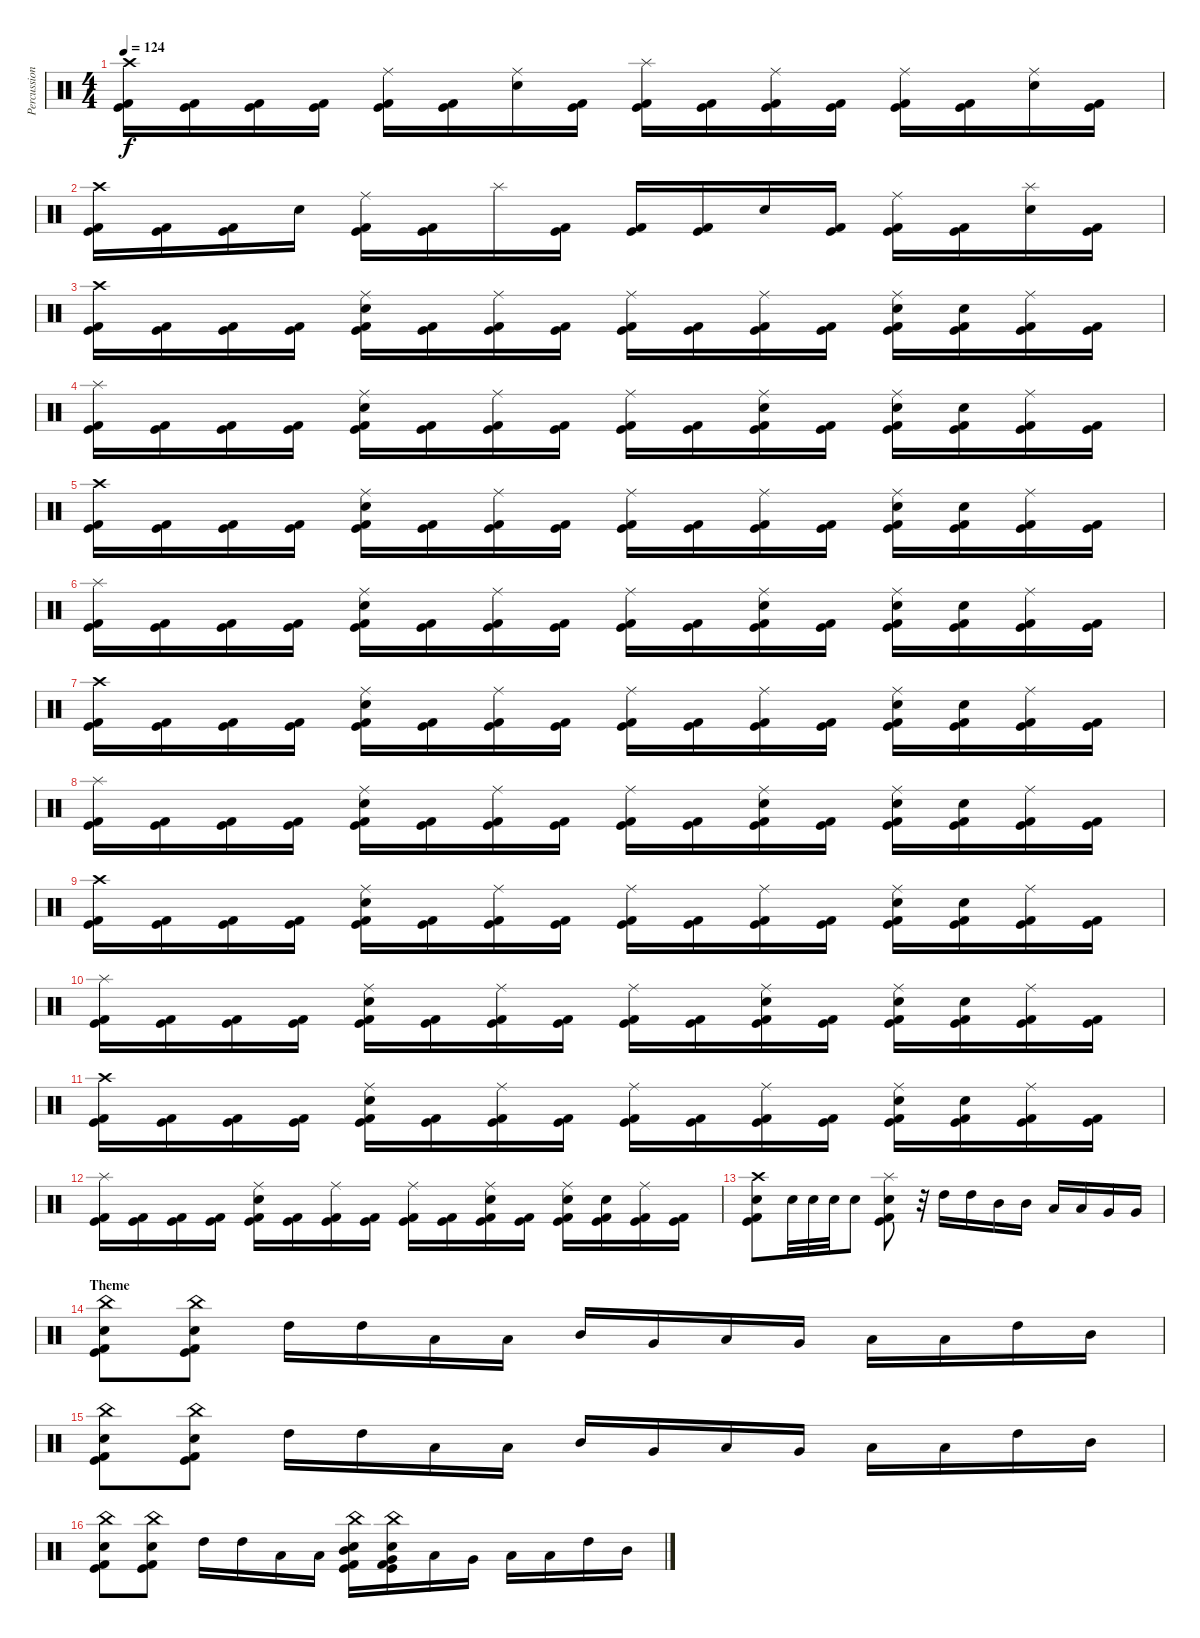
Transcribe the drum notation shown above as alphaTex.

\track ("Percussion" "Percussion") {instrument percussion}
\staff {score}
\articulation defaults
\ts (4 4)
\tempo 124
\clef neutral
\ks c
("Crash high (hit)" "Kick (hit) 2" "Kick (hit)").16{dy f} ("Kick (hit) 2" "Kick (hit)").16 ("Kick (hit) 2" "Kick (hit)").16 ("Kick (hit) 2" "Kick (hit)").16 ("Ride (middle)" "Kick (hit) 2" "Kick (hit)").16 ("Kick (hit) 2" "Kick (hit)").16 ("Ride (middle)" "Snare (hit) 2").16 ("Kick (hit) 2" "Kick (hit)").16 ("Splash (hit)" "Kick (hit) 2" "Kick (hit)").16 ("Kick (hit) 2" "Kick (hit)").16 ("Ride (middle)" "Kick (hit) 2" "Kick (hit)").16 ("Kick (hit) 2" "Kick (hit)").16 ("Ride (middle)" "Kick (hit) 2" "Kick (hit)").16 ("Kick (hit) 2" "Kick (hit)").16 ("Ride (middle)" "Snare (hit) 2").16 ("Kick (hit) 2" "Kick (hit)").16 |
("Crash high (hit)" "Kick (hit) 2" "Kick (hit)").16 ("Kick (hit) 2" "Kick (hit)").16 ("Kick (hit) 2" "Kick (hit)").16 "Snare (hit) 2".16 ("Ride (middle)" "Kick (hit) 2" "Kick (hit)").16 ("Kick (hit) 2" "Kick (hit)").16 "Splash (hit)".16 ("Kick (hit) 2" "Kick (hit)").16 ("Kick (hit) 2" "Kick (hit)").16 ("Kick (hit) 2" "Kick (hit)").16 "Snare (hit) 2".16 ("Kick (hit) 2" "Kick (hit)").16 ("Ride (middle)" "Kick (hit) 2" "Kick (hit)").16 ("Kick (hit) 2" "Kick (hit)").16 ("Splash (hit)" "Snare (hit) 2").16 ("Kick (hit) 2" "Kick (hit)").16 |
("Crash high (hit)" "Kick (hit) 2" "Kick (hit)").16 ("Kick (hit) 2" "Kick (hit)").16 ("Kick (hit) 2" "Kick (hit)").16 ("Kick (hit) 2" "Kick (hit)").16 ("Ride (middle)" "Snare (hit) 2" "Kick (hit) 2" "Kick (hit)").16 ("Kick (hit) 2" "Kick (hit)").16 ("Ride (middle)" "Kick (hit) 2" "Kick (hit)").16 ("Kick (hit) 2" "Kick (hit)").16 ("Ride (middle)" "Kick (hit) 2" "Kick (hit)").16 ("Kick (hit) 2" "Kick (hit)").16 ("Ride (middle)" "Kick (hit) 2" "Kick (hit)").16 ("Kick (hit) 2" "Kick (hit)").16 ("Ride (middle)" "Snare (hit) 2" "Kick (hit) 2" "Kick (hit)").16 ("Snare (hit) 2" "Kick (hit) 2" "Kick (hit)").16 ("Ride (middle)" "Kick (hit) 2" "Kick (hit)").16 ("Kick (hit) 2" "Kick (hit)").16 |
("Splash (hit)" "Kick (hit) 2" "Kick (hit)").16 ("Kick (hit) 2" "Kick (hit)").16 ("Kick (hit) 2" "Kick (hit)").16 ("Kick (hit) 2" "Kick (hit)").16 ("Ride (middle)" "Snare (hit) 2" "Kick (hit) 2" "Kick (hit)").16 ("Kick (hit) 2" "Kick (hit)").16 ("Ride (middle)" "Kick (hit) 2" "Kick (hit)").16 ("Kick (hit) 2" "Kick (hit)").16 ("Ride (middle)" "Kick (hit) 2" "Kick (hit)").16 ("Kick (hit) 2" "Kick (hit)").16 ("Ride (middle)" "Snare (hit) 2" "Kick (hit) 2" "Kick (hit)").16 ("Kick (hit) 2" "Kick (hit)").16 ("Ride (middle)" "Snare (hit) 2" "Kick (hit) 2" "Kick (hit)").16 ("Snare (hit) 2" "Kick (hit) 2" "Kick (hit)").16 ("Ride (middle)" "Kick (hit) 2" "Kick (hit)").16 ("Kick (hit) 2" "Kick (hit)").16 |
("Crash high (hit)" "Kick (hit) 2" "Kick (hit)").16 ("Kick (hit) 2" "Kick (hit)").16 ("Kick (hit) 2" "Kick (hit)").16 ("Kick (hit) 2" "Kick (hit)").16 ("Ride (middle)" "Snare (hit) 2" "Kick (hit) 2" "Kick (hit)").16 ("Kick (hit) 2" "Kick (hit)").16 ("Ride (middle)" "Kick (hit) 2" "Kick (hit)").16 ("Kick (hit) 2" "Kick (hit)").16 ("Ride (middle)" "Kick (hit) 2" "Kick (hit)").16 ("Kick (hit) 2" "Kick (hit)").16 ("Ride (middle)" "Kick (hit) 2" "Kick (hit)").16 ("Kick (hit) 2" "Kick (hit)").16 ("Ride (middle)" "Snare (hit) 2" "Kick (hit) 2" "Kick (hit)").16 ("Snare (hit) 2" "Kick (hit) 2" "Kick (hit)").16 ("Ride (middle)" "Kick (hit) 2" "Kick (hit)").16 ("Kick (hit) 2" "Kick (hit)").16 |
("Splash (hit)" "Kick (hit) 2" "Kick (hit)").16 ("Kick (hit) 2" "Kick (hit)").16 ("Kick (hit) 2" "Kick (hit)").16 ("Kick (hit) 2" "Kick (hit)").16 ("Ride (middle)" "Snare (hit) 2" "Kick (hit) 2" "Kick (hit)").16 ("Kick (hit) 2" "Kick (hit)").16 ("Ride (middle)" "Kick (hit) 2" "Kick (hit)").16 ("Kick (hit) 2" "Kick (hit)").16 ("Ride (middle)" "Kick (hit) 2" "Kick (hit)").16 ("Kick (hit) 2" "Kick (hit)").16 ("Ride (middle)" "Snare (hit) 2" "Kick (hit) 2" "Kick (hit)").16 ("Kick (hit) 2" "Kick (hit)").16 ("Ride (middle)" "Snare (hit) 2" "Kick (hit) 2" "Kick (hit)").16 ("Snare (hit) 2" "Kick (hit) 2" "Kick (hit)").16 ("Ride (middle)" "Kick (hit) 2" "Kick (hit)").16 ("Kick (hit) 2" "Kick (hit)").16 |
("Crash high (hit)" "Kick (hit) 2" "Kick (hit)").16 ("Kick (hit) 2" "Kick (hit)").16 ("Kick (hit) 2" "Kick (hit)").16 ("Kick (hit) 2" "Kick (hit)").16 ("Ride (middle)" "Snare (hit) 2" "Kick (hit) 2" "Kick (hit)").16 ("Kick (hit) 2" "Kick (hit)").16 ("Ride (middle)" "Kick (hit) 2" "Kick (hit)").16 ("Kick (hit) 2" "Kick (hit)").16 ("Ride (middle)" "Kick (hit) 2" "Kick (hit)").16 ("Kick (hit) 2" "Kick (hit)").16 ("Ride (middle)" "Kick (hit) 2" "Kick (hit)").16 ("Kick (hit) 2" "Kick (hit)").16 ("Ride (middle)" "Snare (hit) 2" "Kick (hit) 2" "Kick (hit)").16 ("Snare (hit) 2" "Kick (hit) 2" "Kick (hit)").16 ("Ride (middle)" "Kick (hit) 2" "Kick (hit)").16 ("Kick (hit) 2" "Kick (hit)").16 |
("Splash (hit)" "Kick (hit) 2" "Kick (hit)").16 ("Kick (hit) 2" "Kick (hit)").16 ("Kick (hit) 2" "Kick (hit)").16 ("Kick (hit) 2" "Kick (hit)").16 ("Ride (middle)" "Snare (hit) 2" "Kick (hit) 2" "Kick (hit)").16 ("Kick (hit) 2" "Kick (hit)").16 ("Ride (middle)" "Kick (hit) 2" "Kick (hit)").16 ("Kick (hit) 2" "Kick (hit)").16 ("Ride (middle)" "Kick (hit) 2" "Kick (hit)").16 ("Kick (hit) 2" "Kick (hit)").16 ("Ride (middle)" "Snare (hit) 2" "Kick (hit) 2" "Kick (hit)").16 ("Kick (hit) 2" "Kick (hit)").16 ("Ride (middle)" "Snare (hit) 2" "Kick (hit) 2" "Kick (hit)").16 ("Snare (hit) 2" "Kick (hit) 2" "Kick (hit)").16 ("Ride (middle)" "Kick (hit) 2" "Kick (hit)").16 ("Kick (hit) 2" "Kick (hit)").16 |
("Crash high (hit)" "Kick (hit) 2" "Kick (hit)").16 ("Kick (hit) 2" "Kick (hit)").16 ("Kick (hit) 2" "Kick (hit)").16 ("Kick (hit) 2" "Kick (hit)").16 ("Ride (middle)" "Snare (hit) 2" "Kick (hit) 2" "Kick (hit)").16 ("Kick (hit) 2" "Kick (hit)").16 ("Ride (middle)" "Kick (hit) 2" "Kick (hit)").16 ("Kick (hit) 2" "Kick (hit)").16 ("Ride (middle)" "Kick (hit) 2" "Kick (hit)").16 ("Kick (hit) 2" "Kick (hit)").16 ("Ride (middle)" "Kick (hit) 2" "Kick (hit)").16 ("Kick (hit) 2" "Kick (hit)").16 ("Ride (middle)" "Snare (hit) 2" "Kick (hit) 2" "Kick (hit)").16 ("Snare (hit) 2" "Kick (hit) 2" "Kick (hit)").16 ("Ride (middle)" "Kick (hit) 2" "Kick (hit)").16 ("Kick (hit) 2" "Kick (hit)").16 |
("Splash (hit)" "Kick (hit) 2" "Kick (hit)").16 ("Kick (hit) 2" "Kick (hit)").16 ("Kick (hit) 2" "Kick (hit)").16 ("Kick (hit) 2" "Kick (hit)").16 ("Ride (middle)" "Snare (hit) 2" "Kick (hit) 2" "Kick (hit)").16 ("Kick (hit) 2" "Kick (hit)").16 ("Ride (middle)" "Kick (hit) 2" "Kick (hit)").16 ("Kick (hit) 2" "Kick (hit)").16 ("Ride (middle)" "Kick (hit) 2" "Kick (hit)").16 ("Kick (hit) 2" "Kick (hit)").16 ("Ride (middle)" "Snare (hit) 2" "Kick (hit) 2" "Kick (hit)").16 ("Kick (hit) 2" "Kick (hit)").16 ("Ride (middle)" "Snare (hit) 2" "Kick (hit) 2" "Kick (hit)").16 ("Snare (hit) 2" "Kick (hit) 2" "Kick (hit)").16 ("Ride (middle)" "Kick (hit) 2" "Kick (hit)").16 ("Kick (hit) 2" "Kick (hit)").16 |
("Crash high (hit)" "Kick (hit) 2" "Kick (hit)").16 ("Kick (hit) 2" "Kick (hit)").16 ("Kick (hit) 2" "Kick (hit)").16 ("Kick (hit) 2" "Kick (hit)").16 ("Ride (middle)" "Snare (hit) 2" "Kick (hit) 2" "Kick (hit)").16 ("Kick (hit) 2" "Kick (hit)").16 ("Ride (middle)" "Kick (hit) 2" "Kick (hit)").16 ("Kick (hit) 2" "Kick (hit)").16 ("Ride (middle)" "Kick (hit) 2" "Kick (hit)").16 ("Kick (hit) 2" "Kick (hit)").16 ("Ride (middle)" "Kick (hit) 2" "Kick (hit)").16 ("Kick (hit) 2" "Kick (hit)").16 ("Ride (middle)" "Snare (hit) 2" "Kick (hit) 2" "Kick (hit)").16 ("Snare (hit) 2" "Kick (hit) 2" "Kick (hit)").16 ("Ride (middle)" "Kick (hit) 2" "Kick (hit)").16 ("Kick (hit) 2" "Kick (hit)").16 |
("Splash (hit)" "Kick (hit) 2" "Kick (hit)").16 ("Kick (hit) 2" "Kick (hit)").16 ("Kick (hit) 2" "Kick (hit)").16 ("Kick (hit) 2" "Kick (hit)").16 ("Ride (middle)" "Snare (hit) 2" "Kick (hit) 2" "Kick (hit)").16 ("Kick (hit) 2" "Kick (hit)").16 ("Ride (middle)" "Kick (hit) 2" "Kick (hit)").16 ("Kick (hit) 2" "Kick (hit)").16 ("Ride (middle)" "Kick (hit) 2" "Kick (hit)").16 ("Kick (hit) 2" "Kick (hit)").16 ("Ride (middle)" "Snare (hit) 2" "Kick (hit) 2" "Kick (hit)").16 ("Kick (hit) 2" "Kick (hit)").16 ("Ride (middle)" "Snare (hit) 2" "Kick (hit) 2" "Kick (hit)").16 ("Snare (hit) 2" "Kick (hit) 2" "Kick (hit)").16 ("Ride (middle)" "Kick (hit) 2" "Kick (hit)").16 ("Kick (hit) 2" "Kick (hit)").16 |
("Crash high (hit)" "Snare (hit) 2" "Kick (hit) 2" "Kick (hit)").8 "Snare (hit) 2".32 "Snare (hit) 2".32 "Snare (hit) 2".32 "Snare (hit) 2".8 ("Splash (hit)" "Snare (hit) 2" "Kick (hit) 2" "Kick (hit)").8 r.32 "High Tom (hit)".16 "High Tom (hit)".16 "Mid Tom (hit)".16 "Mid Tom (hit)".16 "Low Tom (hit)".16 "Low Tom (hit)".16 "Very Low Tom (hit)".16 "Very Low Tom (hit)".16 |
\section ("" "Theme")
("China (hit)" "Snare (hit) 2" "Kick (hit) 2" "Kick (hit)").8 ("China (hit)" "Snare (hit) 2" "Kick (hit) 2" "Kick (hit)").8 "High Tom (hit)".16 "High Tom (hit)".16 "Low Tom (hit)".16 "Low Tom (hit)".16 "Mid Tom (hit)".16 "Very Low Tom (hit)".16 "Low Floor Tom (hit)".16 "Very Low Tom (hit)".16 "Low Tom (hit)".16 "Low Tom (hit)".16 "High Tom (hit)".16 "Mid Tom (hit)".16 |
("China (hit)" "Snare (hit) 2" "Kick (hit) 2" "Kick (hit)").8 ("China (hit)" "Snare (hit) 2" "Kick (hit) 2" "Kick (hit)").8 "High Tom (hit)".16 "High Tom (hit)".16 "Low Tom (hit)".16 "Low Tom (hit)".16 "Mid Tom (hit)".16 "Very Low Tom (hit)".16 "Low Floor Tom (hit)".16 "Very Low Tom (hit)".16 "Low Tom (hit)".16 "Low Tom (hit)".16 "High Tom (hit)".16 "Mid Tom (hit)".16 |
("China (hit)" "Snare (hit) 2" "Kick (hit) 2" "Kick (hit)").8 ("China (hit)" "Snare (hit) 2" "Kick (hit) 2" "Kick (hit)").8 "High Tom (hit)".16 "High Tom (hit)".16 "Low Tom (hit)".16 "Low Tom (hit)".16 ("China (hit)" "Snare (hit) 2" "Mid Tom (hit)" "Kick (hit) 2" "Kick (hit)").16 ("China (hit)" "Snare (hit) 2" "Very Low Tom (hit)" "Kick (hit) 2" "Kick (hit)").16 "Low Floor Tom (hit)".16 "Very Low Tom (hit)".16 "Low Tom (hit)".16 "Low Tom (hit)".16 "High Tom (hit)".16 "Mid Tom (hit)".16
